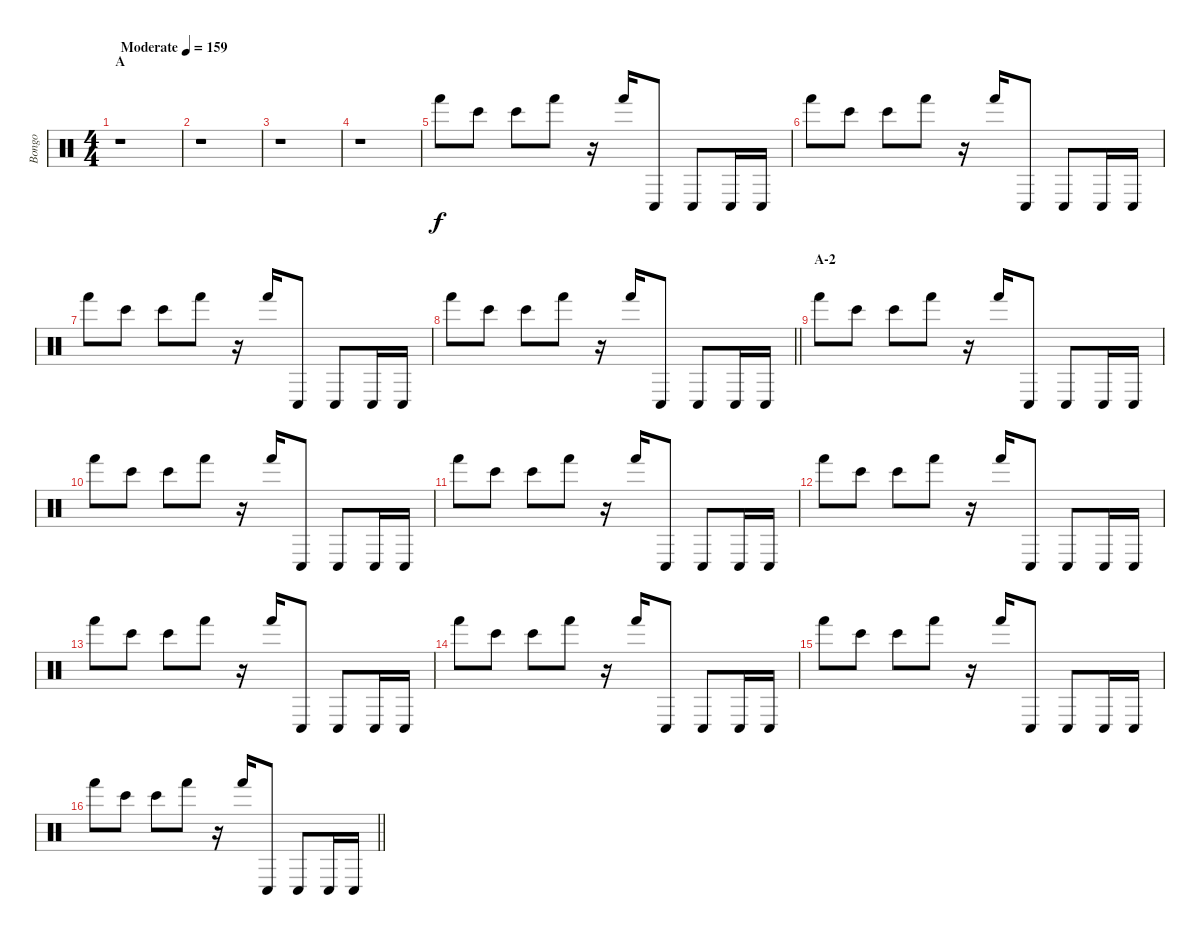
\track ("Bongo" "Bongo") {instrument percussion}
\staff {score}
\articulation defaults
\ts (4 4)
\section ("" "A")
\tempo (159 "Moderate")
\clef neutral
\ks c
r.1{dy f} |
r.1 |
r.1 |
r.1 |
"Hand (hit)".8 "Bongo High (hit)".8 "Bongo High (hit)".8 "Hand (hit)".8 r.16 "Hand (hit)".16 "Conga low (hit)".8 "Conga low (hit)".8 "Conga low (hit)".16 "Conga low (hit)".16 |
"Hand (hit)".8 "Bongo High (hit)".8 "Bongo High (hit)".8 "Hand (hit)".8 r.16 "Hand (hit)".16 "Conga low (hit)".8 "Conga low (hit)".8 "Conga low (hit)".16 "Conga low (hit)".16 |
"Hand (hit)".8 "Bongo High (hit)".8 "Bongo High (hit)".8 "Hand (hit)".8 r.16 "Hand (hit)".16 "Conga low (hit)".8 "Conga low (hit)".8 "Conga low (hit)".16 "Conga low (hit)".16 |
\barLineRight lightlight "Hand (hit)".8 "Bongo High (hit)".8 "Bongo High (hit)".8 "Hand (hit)".8
r.16 "Hand (hit)".16 "Conga low (hit)".8 "Conga low (hit)".8 "Conga low (hit)".16 "Conga low (hit)".16 |
\section ("" "A-2")
"Hand (hit)".8 "Bongo High (hit)".8 "Bongo High (hit)".8 "Hand (hit)".8 r.16 "Hand (hit)".16 "Conga low (hit)".8 "Conga low (hit)".8 "Conga low (hit)".16 "Conga low (hit)".16 |
"Hand (hit)".8 "Bongo High (hit)".8 "Bongo High (hit)".8 "Hand (hit)".8 r.16 "Hand (hit)".16 "Conga low (hit)".8 "Conga low (hit)".8 "Conga low (hit)".16 "Conga low (hit)".16 |
"Hand (hit)".8 "Bongo High (hit)".8 "Bongo High (hit)".8 "Hand (hit)".8 r.16 "Hand (hit)".16 "Conga low (hit)".8 "Conga low (hit)".8 "Conga low (hit)".16 "Conga low (hit)".16 |
"Hand (hit)".8 "Bongo High (hit)".8 "Bongo High (hit)".8 "Hand (hit)".8 r.16 "Hand (hit)".16 "Conga low (hit)".8 "Conga low (hit)".8 "Conga low (hit)".16 "Conga low (hit)".16 |
"Hand (hit)".8 "Bongo High (hit)".8 "Bongo High (hit)".8 "Hand (hit)".8 r.16 "Hand (hit)".16 "Conga low (hit)".8 "Conga low (hit)".8 "Conga low (hit)".16 "Conga low (hit)".16 |
"Hand (hit)".8 "Bongo High (hit)".8 "Bongo High (hit)".8 "Hand (hit)".8 r.16 "Hand (hit)".16 "Conga low (hit)".8 "Conga low (hit)".8 "Conga low (hit)".16 "Conga low (hit)".16 |
"Hand (hit)".8 "Bongo High (hit)".8 "Bongo High (hit)".8 "Hand (hit)".8 r.16 "Hand (hit)".16 "Conga low (hit)".8 "Conga low (hit)".8 "Conga low (hit)".16 "Conga low (hit)".16 |
\barLineRight lightlight "Hand (hit)".8 "Bongo High (hit)".8 "Bongo High (hit)".8 "Hand (hit)".8
r.16 "Hand (hit)".16 "Conga low (hit)".8 "Conga low (hit)".8 "Conga low (hit)".16 "Conga low (hit)".16
